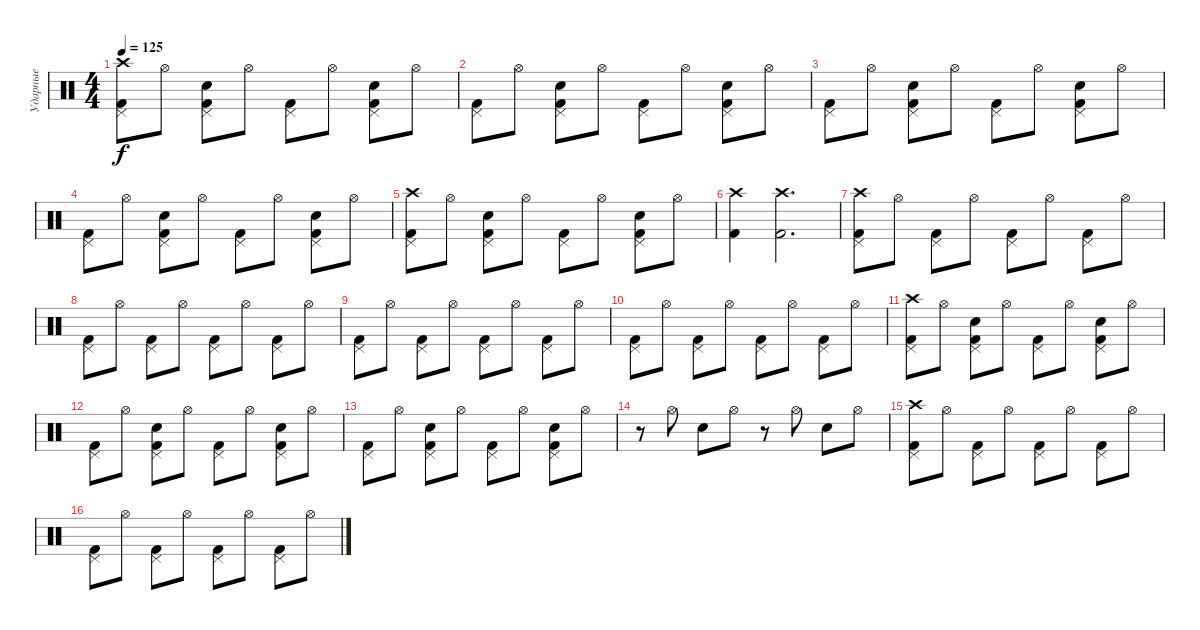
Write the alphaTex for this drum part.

\track ("Ударные" "Ударные") {instrument percussion}
\staff {score}
\articulation defaults
\ts (4 4)
\tempo 125
\clef neutral
\ks c
("Kick (hit) 2" "Pedal Hi-Hat (hit)" "Crash high (hit)").8{dy f} "Hi-Hat (open)".8 ("Kick (hit) 2" "Pedal Hi-Hat (hit)" "Hand Clap (hit)").8 "Hi-Hat (open)".8 ("Kick (hit) 2" "Pedal Hi-Hat (hit)").8 "Hi-Hat (open)".8 ("Kick (hit) 2" "Pedal Hi-Hat (hit)" "Hand Clap (hit)").8 "Hi-Hat (open)".8 |
("Kick (hit) 2" "Pedal Hi-Hat (hit)").8 "Hi-Hat (open)".8 ("Kick (hit) 2" "Pedal Hi-Hat (hit)" "Hand Clap (hit)").8 "Hi-Hat (open)".8 ("Kick (hit) 2" "Pedal Hi-Hat (hit)").8 "Hi-Hat (open)".8 ("Kick (hit) 2" "Pedal Hi-Hat (hit)" "Hand Clap (hit)").8 "Hi-Hat (open)".8 |
("Kick (hit) 2" "Pedal Hi-Hat (hit)").8 "Hi-Hat (open)".8 ("Kick (hit) 2" "Pedal Hi-Hat (hit)" "Hand Clap (hit)").8 "Hi-Hat (open)".8 ("Kick (hit) 2" "Pedal Hi-Hat (hit)").8 "Hi-Hat (open)".8 ("Kick (hit) 2" "Pedal Hi-Hat (hit)" "Hand Clap (hit)").8 "Hi-Hat (open)".8 |
("Kick (hit) 2" "Pedal Hi-Hat (hit)").8 "Hi-Hat (open)".8 ("Kick (hit) 2" "Pedal Hi-Hat (hit)" "Hand Clap (hit)").8 "Hi-Hat (open)".8 ("Kick (hit) 2" "Pedal Hi-Hat (hit)").8 "Hi-Hat (open)".8 ("Kick (hit) 2" "Pedal Hi-Hat (hit)" "Hand Clap (hit)").8 "Hi-Hat (open)".8 |
("Kick (hit) 2" "Pedal Hi-Hat (hit)" "Crash high (hit)").8 "Hi-Hat (open)".8 ("Kick (hit) 2" "Pedal Hi-Hat (hit)" "Hand Clap (hit)").8 "Hi-Hat (open)".8 ("Kick (hit) 2" "Pedal Hi-Hat (hit)").8 "Hi-Hat (open)".8 ("Kick (hit) 2" "Pedal Hi-Hat (hit)" "Hand Clap (hit)").8 "Hi-Hat (open)".8 |
("Kick (hit) 2" "Crash high (hit)").4 ("Kick (hit) 2" "Crash high (hit)").2{d} |
("Kick (hit) 2" "Pedal Hi-Hat (hit)" "Crash high (hit)").8 "Hi-Hat (open)".8 ("Kick (hit) 2" "Pedal Hi-Hat (hit)").8 "Hi-Hat (open)".8 ("Kick (hit) 2" "Pedal Hi-Hat (hit)").8 "Hi-Hat (open)".8 ("Kick (hit) 2" "Pedal Hi-Hat (hit)").8 "Hi-Hat (open)".8 |
("Kick (hit) 2" "Pedal Hi-Hat (hit)").8 "Hi-Hat (open)".8 ("Kick (hit) 2" "Pedal Hi-Hat (hit)").8 "Hi-Hat (open)".8 ("Kick (hit) 2" "Pedal Hi-Hat (hit)").8 "Hi-Hat (open)".8 ("Kick (hit) 2" "Pedal Hi-Hat (hit)").8 "Hi-Hat (open)".8 |
("Kick (hit) 2" "Pedal Hi-Hat (hit)").8 "Hi-Hat (open)".8 ("Kick (hit) 2" "Pedal Hi-Hat (hit)").8 "Hi-Hat (open)".8 ("Kick (hit) 2" "Pedal Hi-Hat (hit)").8 "Hi-Hat (open)".8 ("Kick (hit) 2" "Pedal Hi-Hat (hit)").8 "Hi-Hat (open)".8 |
("Kick (hit) 2" "Pedal Hi-Hat (hit)").8 "Hi-Hat (open)".8 ("Kick (hit) 2" "Pedal Hi-Hat (hit)").8 "Hi-Hat (open)".8 ("Kick (hit) 2" "Pedal Hi-Hat (hit)").8 "Hi-Hat (open)".8 ("Kick (hit) 2" "Pedal Hi-Hat (hit)").8 "Hi-Hat (open)".8 |
("Kick (hit) 2" "Pedal Hi-Hat (hit)" "Crash high (hit)").8 "Hi-Hat (open)".8 ("Kick (hit) 2" "Pedal Hi-Hat (hit)" "Hand Clap (hit)").8 "Hi-Hat (open)".8 ("Kick (hit) 2" "Pedal Hi-Hat (hit)").8 "Hi-Hat (open)".8 ("Kick (hit) 2" "Pedal Hi-Hat (hit)" "Hand Clap (hit)").8 "Hi-Hat (open)".8 |
("Kick (hit) 2" "Pedal Hi-Hat (hit)").8 "Hi-Hat (open)".8 ("Kick (hit) 2" "Pedal Hi-Hat (hit)" "Hand Clap (hit)").8 "Hi-Hat (open)".8 ("Kick (hit) 2" "Pedal Hi-Hat (hit)").8 "Hi-Hat (open)".8 ("Kick (hit) 2" "Pedal Hi-Hat (hit)" "Hand Clap (hit)").8 "Hi-Hat (open)".8 |
("Kick (hit) 2" "Pedal Hi-Hat (hit)").8 "Hi-Hat (open)".8 ("Kick (hit) 2" "Pedal Hi-Hat (hit)" "Hand Clap (hit)").8 "Hi-Hat (open)".8 ("Kick (hit) 2" "Pedal Hi-Hat (hit)").8 "Hi-Hat (open)".8 ("Kick (hit) 2" "Pedal Hi-Hat (hit)" "Hand Clap (hit)").8 "Hi-Hat (open)".8 |
r.8 "Hi-Hat (open)".8 "Hand Clap (hit)".8 "Hi-Hat (open)".8 r.8 "Hi-Hat (open)".8 "Hand Clap (hit)".8 "Hi-Hat (open)".8 |
("Kick (hit) 2" "Pedal Hi-Hat (hit)" "Crash high (hit)").8 "Hi-Hat (open)".8 ("Kick (hit) 2" "Pedal Hi-Hat (hit)").8 "Hi-Hat (open)".8 ("Kick (hit) 2" "Pedal Hi-Hat (hit)").8 "Hi-Hat (open)".8 ("Kick (hit) 2" "Pedal Hi-Hat (hit)").8 "Hi-Hat (open)".8 |
("Kick (hit) 2" "Pedal Hi-Hat (hit)").8 "Hi-Hat (open)".8 ("Kick (hit) 2" "Pedal Hi-Hat (hit)").8 "Hi-Hat (open)".8 ("Kick (hit) 2" "Pedal Hi-Hat (hit)").8 "Hi-Hat (open)".8 ("Kick (hit) 2" "Pedal Hi-Hat (hit)").8 "Hi-Hat (open)".8
